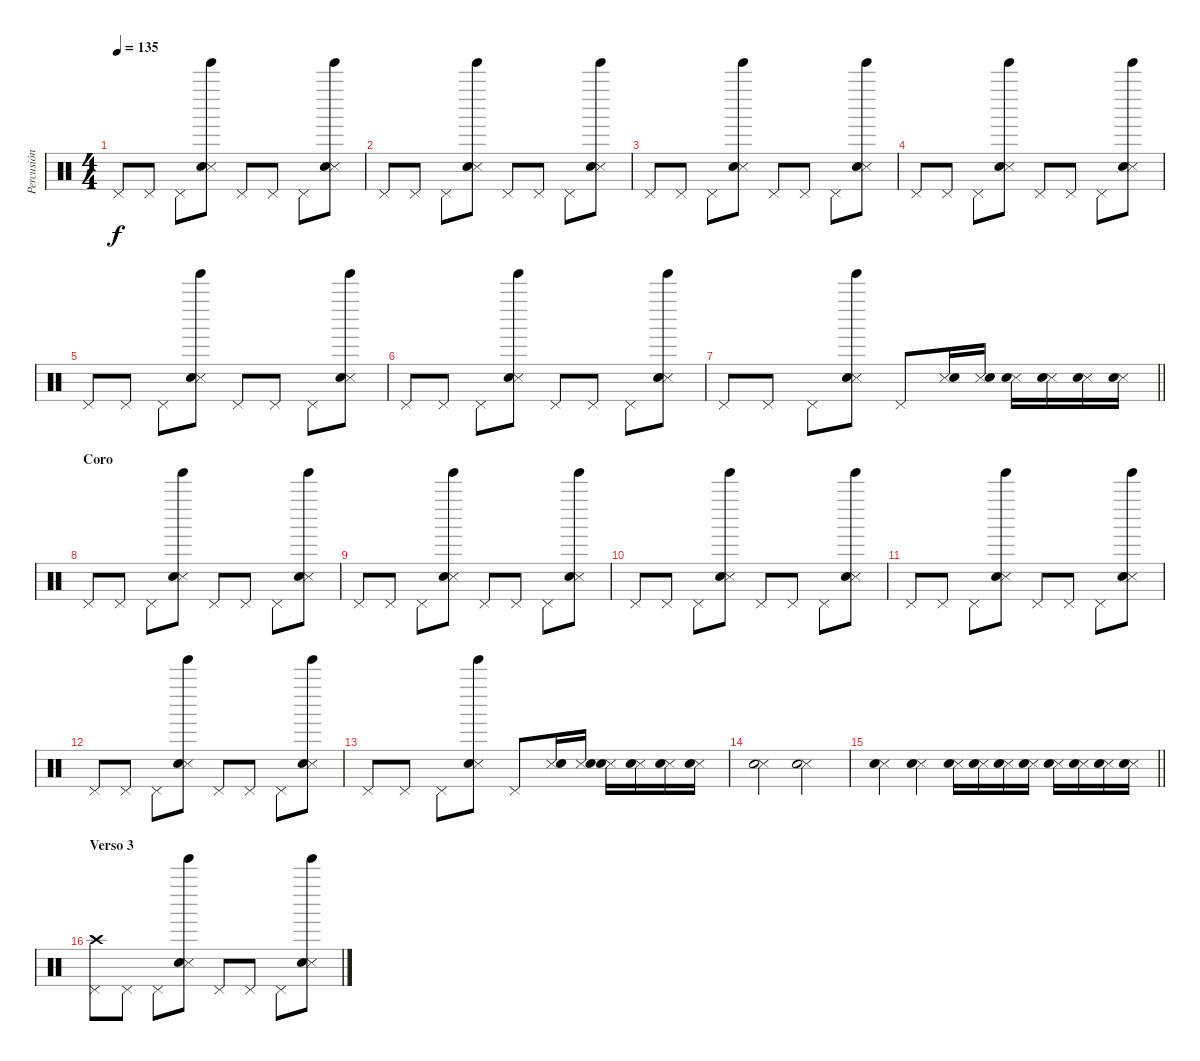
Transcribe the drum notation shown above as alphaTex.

\track ("Percusión" "Percusión") {instrument percussion}
\staff {score}
\articulation defaults
\ts (4 4)
\tempo 135
\clef neutral
\ks c "Pedal Hi-Hat (hit)".8{dy f} "Pedal Hi-Hat (hit)".8 "Pedal Hi-Hat (hit)".8
("Tinkle Bell (hit)" "Snare (side stick) 3" "Snare (hit) 2").8 "Pedal Hi-Hat (hit)".8 "Pedal Hi-Hat (hit)".8 "Pedal Hi-Hat (hit)".8 ("Tinkle Bell (hit)" "Snare (side stick) 3" "Snare (hit) 2").8 |
"Pedal Hi-Hat (hit)".8 "Pedal Hi-Hat (hit)".8 "Pedal Hi-Hat (hit)".8 ("Tinkle Bell (hit)" "Snare (side stick) 3" "Snare (hit) 2").8 "Pedal Hi-Hat (hit)".8 "Pedal Hi-Hat (hit)".8 "Pedal Hi-Hat (hit)".8 ("Tinkle Bell (hit)" "Snare (side stick) 3" "Snare (hit) 2").8 |
"Pedal Hi-Hat (hit)".8 "Pedal Hi-Hat (hit)".8 "Pedal Hi-Hat (hit)".8 ("Tinkle Bell (hit)" "Snare (side stick) 3" "Snare (hit) 2").8 "Pedal Hi-Hat (hit)".8 "Pedal Hi-Hat (hit)".8 "Pedal Hi-Hat (hit)".8 ("Tinkle Bell (hit)" "Snare (side stick) 3" "Snare (hit) 2").8 |
"Pedal Hi-Hat (hit)".8 "Pedal Hi-Hat (hit)".8 "Pedal Hi-Hat (hit)".8 ("Tinkle Bell (hit)" "Snare (side stick) 3" "Snare (hit) 2").8 "Pedal Hi-Hat (hit)".8 "Pedal Hi-Hat (hit)".8 "Pedal Hi-Hat (hit)".8 ("Tinkle Bell (hit)" "Snare (side stick) 3" "Snare (hit) 2").8 |
"Pedal Hi-Hat (hit)".8 "Pedal Hi-Hat (hit)".8 "Pedal Hi-Hat (hit)".8 ("Tinkle Bell (hit)" "Snare (side stick) 3" "Snare (hit) 2").8 "Pedal Hi-Hat (hit)".8 "Pedal Hi-Hat (hit)".8 "Pedal Hi-Hat (hit)".8 ("Tinkle Bell (hit)" "Snare (side stick) 3" "Snare (hit) 2").8 |
"Pedal Hi-Hat (hit)".8 "Pedal Hi-Hat (hit)".8 "Pedal Hi-Hat (hit)".8 ("Tinkle Bell (hit)" "Snare (side stick) 3" "Snare (hit) 2").8 "Pedal Hi-Hat (hit)".8 "Pedal Hi-Hat (hit)".8 "Pedal Hi-Hat (hit)".8 ("Tinkle Bell (hit)" "Snare (side stick) 3" "Snare (hit) 2").8 |
\barLineRight lightlight "Pedal Hi-Hat (hit)".8 "Pedal Hi-Hat (hit)".8 "Pedal Hi-Hat (hit)".8
("Tinkle Bell (hit)" "Snare (side stick) 3" "Snare (hit) 2").8 "Pedal Hi-Hat (hit)".8 ("Snare (side stick) 3" "Snare (hit) 2").16 ("Snare (side stick) 3" "Snare (hit) 2").16 ("Snare (side stick) 3" "Snare (hit) 2").16 ("Snare (side stick) 3" "Snare (hit) 2").16 ("Snare (side stick) 3" "Snare (hit) 2").16 ("Snare (side stick) 3" "Snare (hit) 2").16 |
\section ("" "Coro")
"Pedal Hi-Hat (hit)".8 "Pedal Hi-Hat (hit)".8 "Pedal Hi-Hat (hit)".8 ("Tinkle Bell (hit)" "Snare (side stick) 3" "Snare (hit) 2").8 "Pedal Hi-Hat (hit)".8 "Pedal Hi-Hat (hit)".8 "Pedal Hi-Hat (hit)".8 ("Tinkle Bell (hit)" "Snare (side stick) 3" "Snare (hit) 2").8 |
"Pedal Hi-Hat (hit)".8 "Pedal Hi-Hat (hit)".8 "Pedal Hi-Hat (hit)".8 ("Tinkle Bell (hit)" "Snare (side stick) 3" "Snare (hit) 2").8 "Pedal Hi-Hat (hit)".8 "Pedal Hi-Hat (hit)".8 "Pedal Hi-Hat (hit)".8 ("Tinkle Bell (hit)" "Snare (side stick) 3" "Snare (hit) 2").8 |
"Pedal Hi-Hat (hit)".8 "Pedal Hi-Hat (hit)".8 "Pedal Hi-Hat (hit)".8 ("Tinkle Bell (hit)" "Snare (side stick) 3" "Snare (hit) 2").8 "Pedal Hi-Hat (hit)".8 "Pedal Hi-Hat (hit)".8 "Pedal Hi-Hat (hit)".8 ("Tinkle Bell (hit)" "Snare (side stick) 3" "Snare (hit) 2").8 |
"Pedal Hi-Hat (hit)".8 "Pedal Hi-Hat (hit)".8 "Pedal Hi-Hat (hit)".8 ("Tinkle Bell (hit)" "Snare (side stick) 3" "Snare (hit) 2").8 "Pedal Hi-Hat (hit)".8 "Pedal Hi-Hat (hit)".8 "Pedal Hi-Hat (hit)".8 ("Tinkle Bell (hit)" "Snare (side stick) 3" "Snare (hit) 2").8 |
"Pedal Hi-Hat (hit)".8 "Pedal Hi-Hat (hit)".8 "Pedal Hi-Hat (hit)".8 ("Tinkle Bell (hit)" "Snare (side stick) 3" "Snare (hit) 2").8 "Pedal Hi-Hat (hit)".8 "Pedal Hi-Hat (hit)".8 "Pedal Hi-Hat (hit)".8 ("Tinkle Bell (hit)" "Snare (side stick) 3" "Snare (hit) 2").8 |
"Pedal Hi-Hat (hit)".8 "Pedal Hi-Hat (hit)".8 "Pedal Hi-Hat (hit)".8 ("Tinkle Bell (hit)" "Snare (side stick) 3" "Snare (hit) 2").8 "Pedal Hi-Hat (hit)".8 ("Snare (side stick) 3" "Snare (hit) 2").16 ("Snare (side stick) 3" "Snare (hit) 2").16 ("Snare (side stick) 3" "Snare (hit) 2").16 ("Snare (side stick) 3" "Snare (hit) 2").16 ("Snare (side stick) 3" "Snare (hit) 2").16 ("Snare (side stick) 3" "Snare (hit) 2").16 |
("Snare (side stick) 3" "Snare (hit) 2").2 ("Snare (side stick) 3" "Snare (hit) 2").2 |
\barLineRight lightlight
("Snare (side stick) 3" "Snare (hit) 2").4 ("Snare (side stick) 3" "Snare (hit) 2").4 ("Snare (side stick) 3" "Snare (hit) 2").16 ("Snare (side stick) 3" "Snare (hit) 2").16 ("Snare (side stick) 3" "Snare (hit) 2").16 ("Snare (side stick) 3" "Snare (hit) 2").16 ("Snare (side stick) 3" "Snare (hit) 2").16 ("Snare (side stick) 3" "Snare (hit) 2").16 ("Snare (side stick) 3" "Snare (hit) 2").16 ("Snare (side stick) 3" "Snare (hit) 2").16 |
\section ("" "Verso 3")
("Crash high (hit)" "Pedal Hi-Hat (hit)").8 "Pedal Hi-Hat (hit)".8 "Pedal Hi-Hat (hit)".8 ("Tinkle Bell (hit)" "Snare (side stick) 3" "Snare (hit) 2").8 "Pedal Hi-Hat (hit)".8 "Pedal Hi-Hat (hit)".8 "Pedal Hi-Hat (hit)".8 ("Tinkle Bell (hit)" "Snare (side stick) 3" "Snare (hit) 2").8
